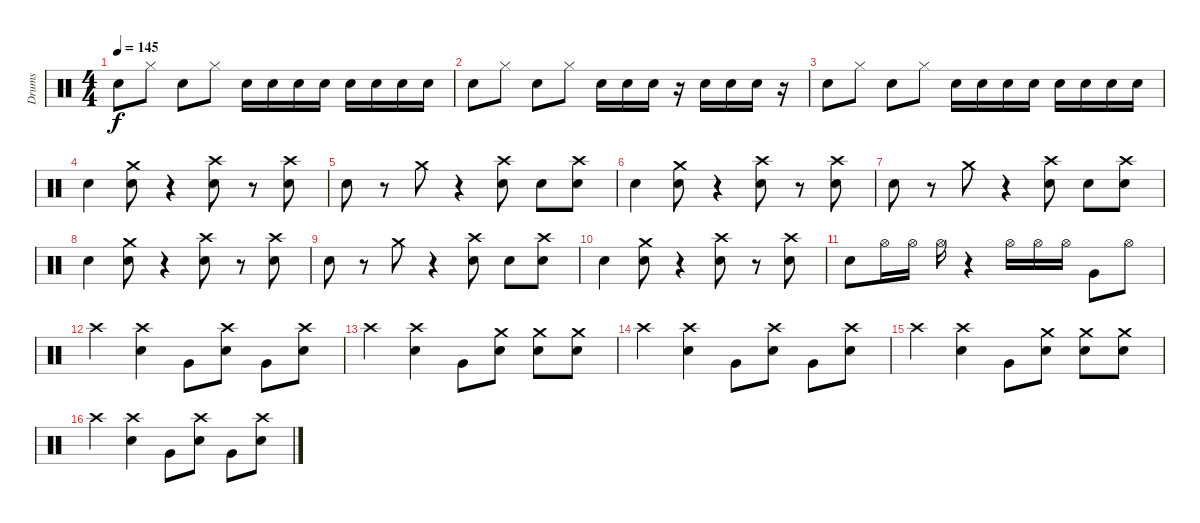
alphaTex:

\track ("Drums" "Drums") {instrument percussion}
\staff {score}
\articulation defaults
\ts (4 4)
\tempo 145
\clef neutral
\ks c "Electric Snare (hit)".8{dy f} "Hi-Hat (closed)".8 "Electric Snare (hit)".8 "Hi-Hat (closed)".8 "Electric Snare (hit)".16 "Electric Snare (hit)".16 "Electric Snare (hit)".16 "Electric Snare (hit)".16 "Electric Snare (hit)".16 "Electric Snare (hit)".16 "Electric Snare (hit)".16 "Electric Snare (hit)".16
|
"Electric Snare (hit)".8 "Hi-Hat (closed)".8 "Electric Snare (hit)".8 "Hi-Hat (closed)".8 "Electric Snare (hit)".16 "Electric Snare (hit)".16 "Electric Snare (hit)".16 r.16 "Electric Snare (hit)".16 "Electric Snare (hit)".16 "Electric Snare (hit)".16 r.16 |
"Electric Snare (hit)".8 "Hi-Hat (closed)".8 "Electric Snare (hit)".8 "Hi-Hat (closed)".8 "Electric Snare (hit)".16 "Electric Snare (hit)".16 "Electric Snare (hit)".16 "Electric Snare (hit)".16 "Electric Snare (hit)".16 "Electric Snare (hit)".16 "Electric Snare (hit)".16 "Electric Snare (hit)".16 |
"Electric Snare (hit)".4 ("Crash medium (hit)" "Electric Snare (hit)").8 r.4 ("Crash high (hit)" "Electric Snare (hit)").8 r.8 ("Crash high (hit)" "Electric Snare (hit)").8 |
"Electric Snare (hit)".8 r.8 "Crash medium (hit)".8 r.4 ("Crash high (hit)" "Electric Snare (hit)").8 "Electric Snare (hit)".8 ("Crash high (hit)" "Electric Snare (hit)").8 |
"Electric Snare (hit)".4 ("Crash medium (hit)" "Electric Snare (hit)").8 r.4 ("Crash high (hit)" "Electric Snare (hit)").8 r.8 ("Crash high (hit)" "Electric Snare (hit)").8 |
"Electric Snare (hit)".8 r.8 "Crash medium (hit)".8 r.4 ("Crash high (hit)" "Electric Snare (hit)").8 "Electric Snare (hit)".8 ("Crash high (hit)" "Electric Snare (hit)").8 |
"Electric Snare (hit)".4 ("Crash medium (hit)" "Electric Snare (hit)").8 r.4 ("Crash high (hit)" "Electric Snare (hit)").8 r.8 ("Crash high (hit)" "Electric Snare (hit)").8 |
"Electric Snare (hit)".8 r.8 "Crash medium (hit)".8 r.4 ("Crash high (hit)" "Electric Snare (hit)").8 "Electric Snare (hit)".8 ("Crash high (hit)" "Electric Snare (hit)").8 |
"Electric Snare (hit)".4 ("Crash medium (hit)" "Electric Snare (hit)").8 r.4 ("Crash high (hit)" "Electric Snare (hit)").8 r.8 ("Crash high (hit)" "Electric Snare (hit)").8 |
"Electric Snare (hit)".8 "Hi-Hat (open)".16 "Hi-Hat (open)".16 "Hi-Hat (open)".16 r.4 "Hi-Hat (open)".16 "Hi-Hat (open)".16 "Hi-Hat (open)".16 "Very Low Tom (hit)".8 "Hi-Hat (open)".8 |
"Crash high (hit)".4 ("Crash high (hit)" "Electric Snare (hit)").4 "Very Low Tom (hit)".8 ("Crash high (hit)" "Electric Snare (hit)").8 "Very Low Tom (hit)".8 ("Crash high (hit)" "Electric Snare (hit)").8 |
"Crash high (hit)".4 ("Crash high (hit)" "Electric Snare (hit)").4 "Very Low Tom (hit)".8 ("Crash medium (hit)" "Electric Snare (hit)").8 ("Crash medium (hit)" "Electric Snare (hit)").8 ("Crash medium (hit)" "Electric Snare (hit)").8 |
"Crash high (hit)".4 ("Crash high (hit)" "Electric Snare (hit)").4 "Very Low Tom (hit)".8 ("Crash high (hit)" "Electric Snare (hit)").8 "Very Low Tom (hit)".8 ("Crash high (hit)" "Electric Snare (hit)").8 |
"Crash high (hit)".4 ("Crash high (hit)" "Electric Snare (hit)").4 "Very Low Tom (hit)".8 ("Crash medium (hit)" "Electric Snare (hit)").8 ("Crash medium (hit)" "Electric Snare (hit)").8 ("Crash medium (hit)" "Electric Snare (hit)").8 |
"Crash high (hit)".4 ("Crash high (hit)" "Electric Snare (hit)").4 "Very Low Tom (hit)".8 ("Crash high (hit)" "Electric Snare (hit)").8 "Very Low Tom (hit)".8 ("Crash high (hit)" "Electric Snare (hit)").8
